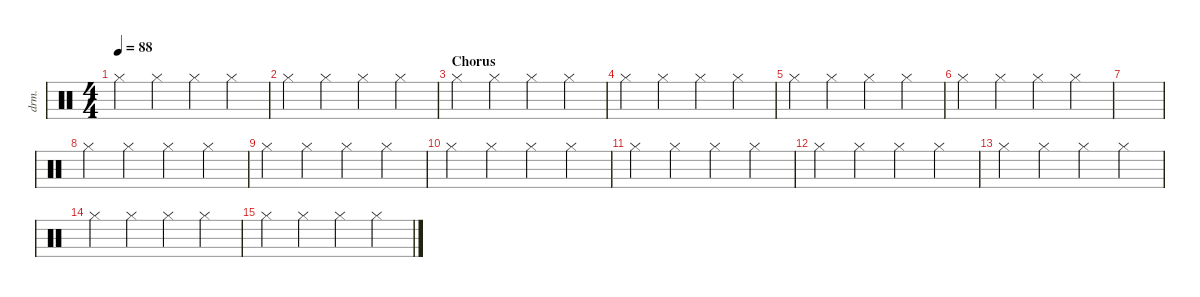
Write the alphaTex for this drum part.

\defaultSystemsLayout 4
\hideDynamics
\bracketExtendMode nobrackets
\otherSystemsTrackNameOrientation horizontal
\track ("Drumkit" "drm.") {instrument percussion}
\staff {score}
\articulation defaults
\ts (4 4)
\tempo 88
\clef neutral
\ks c "Hi-Hat (closed)".4{dy mf beam Down} "Hi-Hat (closed)".4{beam Down} "Hi-Hat (closed)".4{beam Down} "Hi-Hat (closed)".4{beam Down}
|
"Hi-Hat (closed)".4{beam Down} "Hi-Hat (closed)".4{beam Down} "Hi-Hat (closed)".4{beam Down} "Hi-Hat (closed)".4{beam Down} |
\section ("" "Chorus")
"Hi-Hat (closed)".4{beam Down} "Hi-Hat (closed)".4{beam Down} "Hi-Hat (closed)".4{beam Down} "Hi-Hat (closed)".4{beam Down} |
"Hi-Hat (closed)".4{beam Down} "Hi-Hat (closed)".4{beam Down} "Hi-Hat (closed)".4{beam Down} "Hi-Hat (closed)".4{beam Down} |
"Hi-Hat (closed)".4{beam Down} "Hi-Hat (closed)".4{beam Down} "Hi-Hat (closed)".4{beam Down} "Hi-Hat (closed)".4{beam Down} |
"Hi-Hat (closed)".4{beam Down} "Hi-Hat (closed)".4{beam Down} "Hi-Hat (closed)".4{beam Down} "Hi-Hat (closed)".4{beam Down} |
|
"Hi-Hat (closed)".4{beam Down} "Hi-Hat (closed)".4{beam Down} "Hi-Hat (closed)".4{beam Down} "Hi-Hat (closed)".4{beam Down} |
"Hi-Hat (closed)".4{beam Down} "Hi-Hat (closed)".4{beam Down} "Hi-Hat (closed)".4{beam Down} "Hi-Hat (closed)".4{beam Down} |
"Hi-Hat (closed)".4{beam Down} "Hi-Hat (closed)".4{beam Down} "Hi-Hat (closed)".4{beam Down} "Hi-Hat (closed)".4{beam Down} |
"Hi-Hat (closed)".4{beam Down} "Hi-Hat (closed)".4{beam Down} "Hi-Hat (closed)".4{beam Down} "Hi-Hat (closed)".4{beam Down} |
"Hi-Hat (closed)".4{beam Down} "Hi-Hat (closed)".4{beam Down} "Hi-Hat (closed)".4{beam Down} "Hi-Hat (closed)".4{beam Down} |
"Hi-Hat (closed)".4{beam Down} "Hi-Hat (closed)".4{beam Down} "Hi-Hat (closed)".4{beam Down} "Hi-Hat (closed)".4{beam Down} |
"Hi-Hat (closed)".4{beam Down} "Hi-Hat (closed)".4{beam Down} "Hi-Hat (closed)".4{beam Down} "Hi-Hat (closed)".4{beam Down} |
"Hi-Hat (closed)".4{beam Down} "Hi-Hat (closed)".4{beam Down} "Hi-Hat (closed)".4{beam Down} "Hi-Hat (closed)".4{beam Down}
